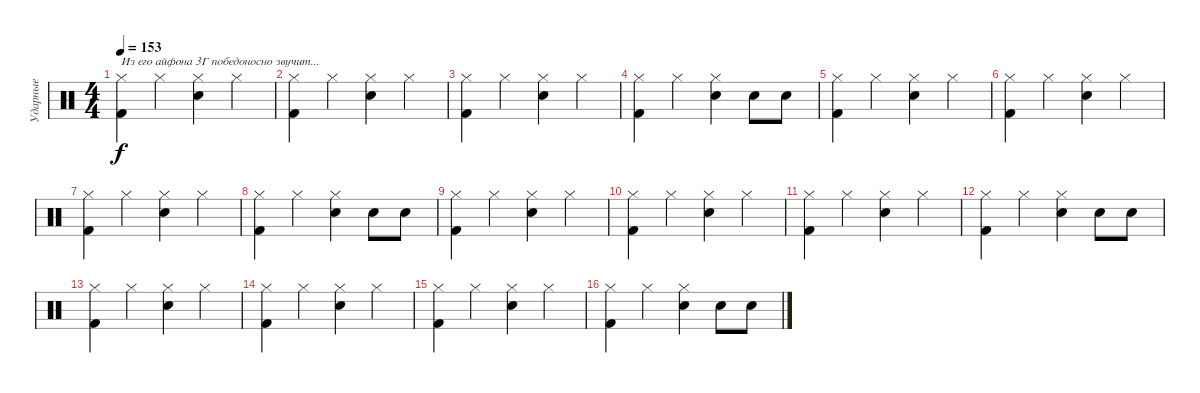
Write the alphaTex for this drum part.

\track ("Ударные" "Ударные") {instrument percussion}
\staff {score}
\articulation defaults
\ts (4 4)
\tempo 153
\clef neutral
\ks c
("Hi-Hat (closed)" "Kick (hit) 2").4{txt "Из его айфона 3Г победоносно звучит..." dy f} "Hi-Hat (closed)".4 ("Hi-Hat (closed)" "Snare (hit) 2").4 "Hi-Hat (closed)".4 |
("Hi-Hat (closed)" "Kick (hit) 2").4 "Hi-Hat (closed)".4 ("Hi-Hat (closed)" "Snare (hit) 2").4 "Hi-Hat (closed)".4 |
("Hi-Hat (closed)" "Kick (hit) 2").4 "Hi-Hat (closed)".4 ("Hi-Hat (closed)" "Snare (hit) 2").4 "Hi-Hat (closed)".4 |
("Hi-Hat (closed)" "Kick (hit) 2").4 "Hi-Hat (closed)".4 ("Hi-Hat (closed)" "Snare (hit) 2").4 "Snare (hit) 2".8 "Snare (hit) 2".8 |
("Hi-Hat (closed)" "Kick (hit) 2").4 "Hi-Hat (closed)".4 ("Hi-Hat (closed)" "Snare (hit) 2").4 "Hi-Hat (closed)".4 |
("Hi-Hat (closed)" "Kick (hit) 2").4 "Hi-Hat (closed)".4 ("Hi-Hat (closed)" "Snare (hit) 2").4 "Hi-Hat (closed)".4 |
("Hi-Hat (closed)" "Kick (hit) 2").4 "Hi-Hat (closed)".4 ("Hi-Hat (closed)" "Snare (hit) 2").4 "Hi-Hat (closed)".4 |
("Hi-Hat (closed)" "Kick (hit) 2").4 "Hi-Hat (closed)".4 ("Hi-Hat (closed)" "Snare (hit) 2").4 "Snare (hit) 2".8{volume 16} "Snare (hit) 2".8 |
("Hi-Hat (closed)" "Kick (hit) 2").4 "Hi-Hat (closed)".4 ("Hi-Hat (closed)" "Snare (hit) 2").4 "Hi-Hat (closed)".4 |
("Hi-Hat (closed)" "Kick (hit) 2").4 "Hi-Hat (closed)".4 ("Hi-Hat (closed)" "Snare (hit) 2").4 "Hi-Hat (closed)".4 |
("Hi-Hat (closed)" "Kick (hit) 2").4 "Hi-Hat (closed)".4 ("Hi-Hat (closed)" "Snare (hit) 2").4 "Hi-Hat (closed)".4 |
("Hi-Hat (closed)" "Kick (hit) 2").4 "Hi-Hat (closed)".4 ("Hi-Hat (closed)" "Snare (hit) 2").4 "Snare (hit) 2".8 "Snare (hit) 2".8 |
("Hi-Hat (closed)" "Kick (hit) 2").4 "Hi-Hat (closed)".4 ("Hi-Hat (closed)" "Snare (hit) 2").4 "Hi-Hat (closed)".4 |
("Hi-Hat (closed)" "Kick (hit) 2").4 "Hi-Hat (closed)".4 ("Hi-Hat (closed)" "Snare (hit) 2").4 "Hi-Hat (closed)".4 |
("Hi-Hat (closed)" "Kick (hit) 2").4 "Hi-Hat (closed)".4 ("Hi-Hat (closed)" "Snare (hit) 2").4 "Hi-Hat (closed)".4 |
("Hi-Hat (closed)" "Kick (hit) 2").4 "Hi-Hat (closed)".4 ("Hi-Hat (closed)" "Snare (hit) 2").4 "Snare (hit) 2".8 "Snare (hit) 2".8
